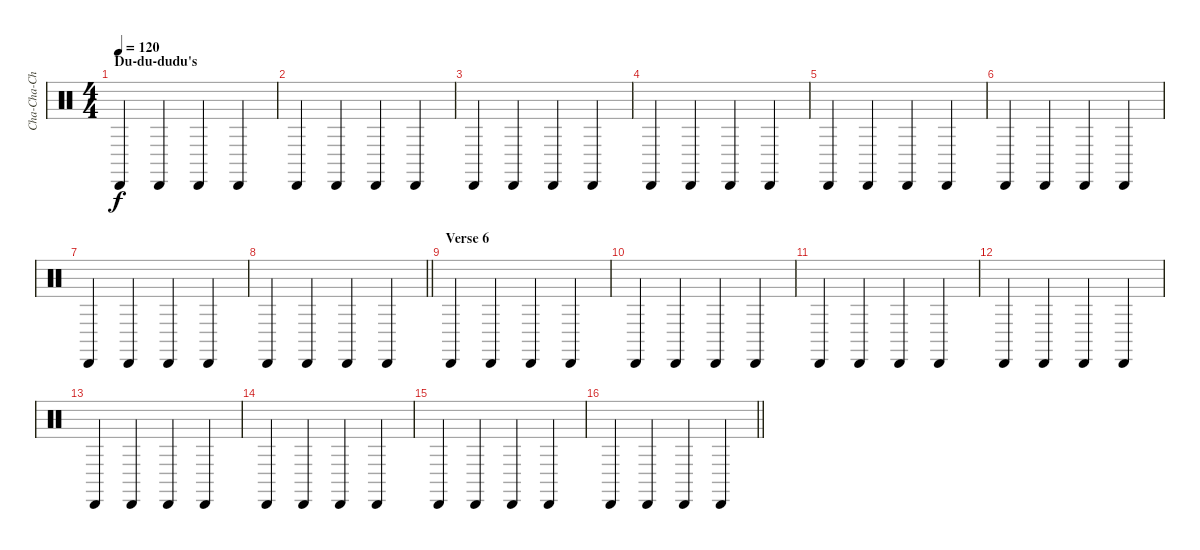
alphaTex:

\track ("Cha-Cha-Cha's" "Cha-Cha-Ch") {instrument percussion}
\staff {score}
\articulation defaults
\ts (4 4)
\section ("" "Du-du-dudu's")
\tempo 120
\clef neutral
\ks c "Cabasa (hit)".4{dy f} "Cabasa (hit)".4 "Cabasa (hit)".4 "Cabasa (hit)".4
|
"Cabasa (hit)".4 "Cabasa (hit)".4 "Cabasa (hit)".4 "Cabasa (hit)".4 |
"Cabasa (hit)".4 "Cabasa (hit)".4 "Cabasa (hit)".4 "Cabasa (hit)".4 |
"Cabasa (hit)".4 "Cabasa (hit)".4 "Cabasa (hit)".4 "Cabasa (hit)".4 |
"Cabasa (hit)".4 "Cabasa (hit)".4 "Cabasa (hit)".4 "Cabasa (hit)".4 |
"Cabasa (hit)".4 "Cabasa (hit)".4 "Cabasa (hit)".4 "Cabasa (hit)".4 |
"Cabasa (hit)".4 "Cabasa (hit)".4 "Cabasa (hit)".4 "Cabasa (hit)".4 |
\barLineRight lightlight "Cabasa (hit)".4 "Cabasa (hit)".4 "Cabasa (hit)".4 "Cabasa (hit)".4
|
\section ("" "Verse 6")
"Cabasa (hit)".4 "Cabasa (hit)".4 "Cabasa (hit)".4 "Cabasa (hit)".4 |
"Cabasa (hit)".4 "Cabasa (hit)".4 "Cabasa (hit)".4 "Cabasa (hit)".4 |
"Cabasa (hit)".4 "Cabasa (hit)".4 "Cabasa (hit)".4 "Cabasa (hit)".4 |
"Cabasa (hit)".4 "Cabasa (hit)".4 "Cabasa (hit)".4 "Cabasa (hit)".4 |
"Cabasa (hit)".4 "Cabasa (hit)".4 "Cabasa (hit)".4 "Cabasa (hit)".4 |
"Cabasa (hit)".4 "Cabasa (hit)".4 "Cabasa (hit)".4 "Cabasa (hit)".4 |
"Cabasa (hit)".4 "Cabasa (hit)".4 "Cabasa (hit)".4 "Cabasa (hit)".4 |
\barLineRight lightlight "Cabasa (hit)".4 "Cabasa (hit)".4 "Cabasa (hit)".4 "Cabasa (hit)".4
